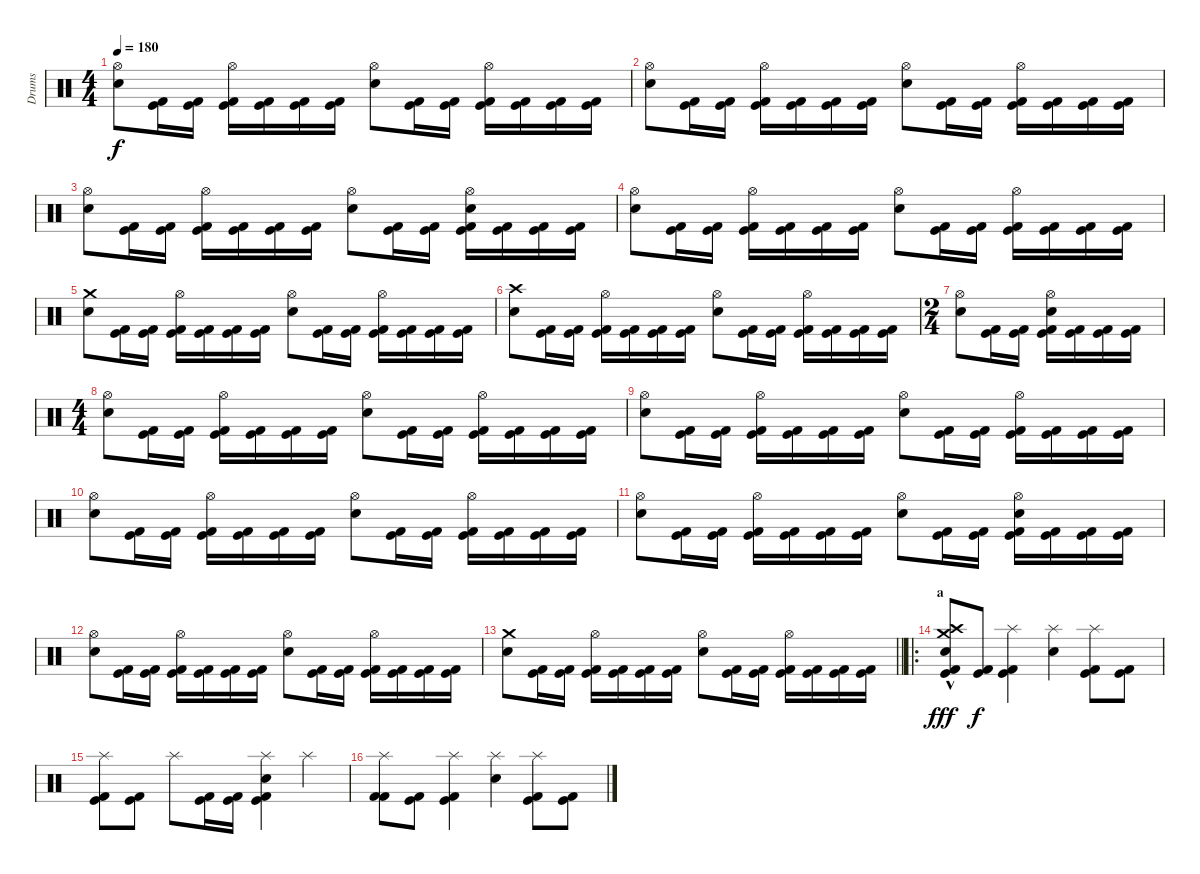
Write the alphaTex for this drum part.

\track ("Drums" "Drums") {instrument percussion}
\staff {score}
\articulation defaults
\ts (4 4)
\tempo 180
\clef neutral
\ks c
("Hi-Hat (open)" "Electric Snare (hit)").8{dy f} ("Kick (hit) 2" "Kick (hit)").16 ("Kick (hit) 2" "Kick (hit)").16 ("Kick (hit) 2" "Hi-Hat (open)" "Kick (hit)").16 ("Kick (hit) 2" "Kick (hit)").16 ("Kick (hit) 2" "Kick (hit)").16 ("Kick (hit) 2" "Kick (hit)").16 ("Hi-Hat (open)" "Electric Snare (hit)").8 ("Kick (hit) 2" "Kick (hit)").16 ("Kick (hit) 2" "Kick (hit)").16 ("Kick (hit) 2" "Hi-Hat (open)" "Kick (hit)").16 ("Kick (hit) 2" "Kick (hit)").16 ("Kick (hit) 2" "Kick (hit)").16 ("Kick (hit) 2" "Kick (hit)").16 |
("Hi-Hat (open)" "Electric Snare (hit)").8 ("Kick (hit) 2" "Kick (hit)").16 ("Kick (hit) 2" "Kick (hit)").16 ("Kick (hit) 2" "Hi-Hat (open)" "Kick (hit)").16 ("Kick (hit) 2" "Kick (hit)").16 ("Kick (hit) 2" "Kick (hit)").16 ("Kick (hit) 2" "Kick (hit)").16 ("Hi-Hat (open)" "Electric Snare (hit)").8 ("Kick (hit) 2" "Kick (hit)").16 ("Kick (hit) 2" "Kick (hit)").16 ("Kick (hit) 2" "Hi-Hat (open)" "Kick (hit)").16 ("Kick (hit) 2" "Kick (hit)").16 ("Kick (hit) 2" "Kick (hit)").16 ("Kick (hit) 2" "Kick (hit)").16 |
("Hi-Hat (open)" "Electric Snare (hit)").8 ("Kick (hit) 2" "Kick (hit)").16 ("Kick (hit) 2" "Kick (hit)").16 ("Kick (hit) 2" "Hi-Hat (open)" "Kick (hit)").16 ("Kick (hit) 2" "Kick (hit)").16 ("Kick (hit) 2" "Kick (hit)").16 ("Kick (hit) 2" "Kick (hit)").16 ("Hi-Hat (open)" "Electric Snare (hit)").8 ("Kick (hit) 2" "Kick (hit)").16 ("Kick (hit) 2" "Kick (hit)").16 ("Kick (hit) 2" "Hi-Hat (open)" "Kick (hit)" "Electric Snare (hit)").16 ("Kick (hit) 2" "Kick (hit)").16 ("Kick (hit) 2" "Kick (hit)").16 ("Kick (hit) 2" "Kick (hit)").16 |
("Hi-Hat (open)" "Electric Snare (hit)").8 ("Kick (hit) 2" "Kick (hit)").16 ("Kick (hit) 2" "Kick (hit)").16 ("Kick (hit) 2" "Hi-Hat (open)" "Kick (hit)").16 ("Kick (hit) 2" "Kick (hit)").16 ("Kick (hit) 2" "Kick (hit)").16 ("Kick (hit) 2" "Kick (hit)").16 ("Hi-Hat (open)" "Electric Snare (hit)").8 ("Kick (hit) 2" "Kick (hit)").16 ("Kick (hit) 2" "Kick (hit)").16 ("Kick (hit) 2" "Hi-Hat (open)" "Kick (hit)").16 ("Kick (hit) 2" "Kick (hit)").16 ("Kick (hit) 2" "Kick (hit)").16 ("Kick (hit) 2" "Kick (hit)").16 |
("Crash medium (hit)" "Electric Snare (hit)").8 ("Kick (hit) 2" "Kick (hit)").16 ("Kick (hit) 2" "Kick (hit)").16 ("Kick (hit) 2" "Hi-Hat (open)" "Kick (hit)").16 ("Kick (hit) 2" "Kick (hit)").16 ("Kick (hit) 2" "Kick (hit)").16 ("Kick (hit) 2" "Kick (hit)").16 ("Hi-Hat (open)" "Electric Snare (hit)").8 ("Kick (hit) 2" "Kick (hit)").16 ("Kick (hit) 2" "Kick (hit)").16 ("Kick (hit) 2" "Hi-Hat (open)" "Kick (hit)").16 ("Kick (hit) 2" "Kick (hit)").16 ("Kick (hit) 2" "Kick (hit)").16 ("Kick (hit) 2" "Kick (hit)").16 |
("Crash high (hit)" "Electric Snare (hit)").8 ("Kick (hit) 2" "Kick (hit)").16 ("Kick (hit) 2" "Kick (hit)").16 ("Kick (hit) 2" "Hi-Hat (open)" "Kick (hit)").16 ("Kick (hit) 2" "Kick (hit)").16 ("Kick (hit) 2" "Kick (hit)").16 ("Kick (hit) 2" "Kick (hit)").16 ("Hi-Hat (open)" "Electric Snare (hit)").8 ("Kick (hit) 2" "Kick (hit)").16 ("Kick (hit) 2" "Kick (hit)").16 ("Kick (hit) 2" "Hi-Hat (open)" "Kick (hit)").16 ("Kick (hit) 2" "Kick (hit)").16 ("Kick (hit) 2" "Kick (hit)").16 ("Kick (hit) 2" "Kick (hit)").16 |
\ts (2 4)
("Hi-Hat (open)" "Electric Snare (hit)").8 ("Kick (hit) 2" "Kick (hit)").16 ("Kick (hit) 2" "Kick (hit)").16 ("Kick (hit) 2" "Electric Snare (hit)" "Hi-Hat (open)" "Kick (hit)").16 ("Kick (hit) 2" "Kick (hit)").16 ("Kick (hit) 2" "Kick (hit)").16 ("Kick (hit) 2" "Kick (hit)").16 |
\ts (4 4)
("Hi-Hat (open)" "Electric Snare (hit)").8 ("Kick (hit) 2" "Kick (hit)").16 ("Kick (hit) 2" "Kick (hit)").16 ("Kick (hit) 2" "Hi-Hat (open)" "Kick (hit)").16 ("Kick (hit) 2" "Kick (hit)").16 ("Kick (hit) 2" "Kick (hit)").16 ("Kick (hit) 2" "Kick (hit)").16 ("Hi-Hat (open)" "Electric Snare (hit)").8 ("Kick (hit) 2" "Kick (hit)").16 ("Kick (hit) 2" "Kick (hit)").16 ("Kick (hit) 2" "Hi-Hat (open)" "Kick (hit)").16 ("Kick (hit) 2" "Kick (hit)").16 ("Kick (hit) 2" "Kick (hit)").16 ("Kick (hit) 2" "Kick (hit)").16 |
("Hi-Hat (open)" "Electric Snare (hit)").8 ("Kick (hit) 2" "Kick (hit)").16 ("Kick (hit) 2" "Kick (hit)").16 ("Kick (hit) 2" "Hi-Hat (open)" "Kick (hit)").16 ("Kick (hit) 2" "Kick (hit)").16 ("Kick (hit) 2" "Kick (hit)").16 ("Kick (hit) 2" "Kick (hit)").16 ("Hi-Hat (open)" "Electric Snare (hit)").8 ("Kick (hit) 2" "Kick (hit)").16 ("Kick (hit) 2" "Kick (hit)").16 ("Kick (hit) 2" "Hi-Hat (open)" "Kick (hit)").16 ("Kick (hit) 2" "Kick (hit)").16 ("Kick (hit) 2" "Kick (hit)").16 ("Kick (hit) 2" "Kick (hit)").16 |
("Hi-Hat (open)" "Electric Snare (hit)").8 ("Kick (hit) 2" "Kick (hit)").16 ("Kick (hit) 2" "Kick (hit)").16 ("Kick (hit) 2" "Hi-Hat (open)" "Kick (hit)").16 ("Kick (hit) 2" "Kick (hit)").16 ("Kick (hit) 2" "Kick (hit)").16 ("Kick (hit) 2" "Kick (hit)").16 ("Hi-Hat (open)" "Electric Snare (hit)").8 ("Kick (hit) 2" "Kick (hit)").16 ("Kick (hit) 2" "Kick (hit)").16 ("Kick (hit) 2" "Hi-Hat (open)" "Kick (hit)").16 ("Kick (hit) 2" "Kick (hit)").16 ("Kick (hit) 2" "Kick (hit)").16 ("Kick (hit) 2" "Kick (hit)").16 |
("Hi-Hat (open)" "Electric Snare (hit)").8 ("Kick (hit) 2" "Kick (hit)").16 ("Kick (hit) 2" "Kick (hit)").16 ("Kick (hit) 2" "Hi-Hat (open)" "Kick (hit)").16 ("Kick (hit) 2" "Kick (hit)").16 ("Kick (hit) 2" "Kick (hit)").16 ("Kick (hit) 2" "Kick (hit)").16 ("Hi-Hat (open)" "Electric Snare (hit)").8 ("Kick (hit) 2" "Kick (hit)").16 ("Kick (hit) 2" "Kick (hit)").16 ("Kick (hit) 2" "Hi-Hat (open)" "Kick (hit)" "Electric Snare (hit)").16 ("Kick (hit) 2" "Kick (hit)").16 ("Kick (hit) 2" "Kick (hit)").16 ("Kick (hit) 2" "Kick (hit)").16 |
("Hi-Hat (open)" "Electric Snare (hit)").8 ("Kick (hit) 2" "Kick (hit)").16 ("Kick (hit) 2" "Kick (hit)").16 ("Kick (hit) 2" "Hi-Hat (open)" "Kick (hit)").16 ("Kick (hit) 2" "Kick (hit)").16 ("Kick (hit) 2" "Kick (hit)").16 ("Kick (hit) 2" "Kick (hit)").16 ("Hi-Hat (open)" "Electric Snare (hit)").8 ("Kick (hit) 2" "Kick (hit)").16 ("Kick (hit) 2" "Kick (hit)").16 ("Kick (hit) 2" "Hi-Hat (open)" "Kick (hit)").16 ("Kick (hit) 2" "Kick (hit)").16 ("Kick (hit) 2" "Kick (hit)").16 ("Kick (hit) 2" "Kick (hit)").16 |
\barLineRight lightlight
("Crash medium (hit)" "Electric Snare (hit)").8 ("Kick (hit) 2" "Kick (hit)").16 ("Kick (hit) 2" "Kick (hit)").16 ("Kick (hit) 2" "Hi-Hat (open)" "Kick (hit)").16 ("Kick (hit) 2" "Kick (hit)").16 ("Kick (hit) 2" "Kick (hit)").16 ("Kick (hit) 2" "Kick (hit)").16 ("Hi-Hat (open)" "Electric Snare (hit)").8 ("Kick (hit) 2" "Kick (hit)").16 ("Kick (hit) 2" "Kick (hit)").16 ("Kick (hit) 2" "Hi-Hat (open)" "Kick (hit)").16 ("Kick (hit) 2" "Kick (hit)").16 ("Kick (hit) 2" "Kick (hit)").16 ("Kick (hit) 2" "Kick (hit)").16 |
\ro
\section ("" "a")
("Kick (hit) 2" "Snare (hit) 2" "Kick (hit)" "Crash high (hit)"{hac} "Crash medium (hit)"{hac}).8{dy fff} ("Kick (hit) 2" "Kick (hit)").8{dy f} ("Kick (hit) 2" "Kick (hit)" "Splash (hit)").4 ("Electric Snare (hit)" "Splash (hit)").4 ("Kick (hit) 2" "Kick (hit)" "Splash (hit)").8 ("Kick (hit) 2" "Kick (hit)").8 |
("Kick (hit) 2" "Kick (hit)" "Splash (hit)").8 ("Kick (hit) 2" "Kick (hit)").8 "Splash (hit)".8 ("Kick (hit) 2" "Kick (hit)").16 ("Kick (hit) 2" "Kick (hit)").16 ("Kick (hit) 2" "Electric Snare (hit)" "Kick (hit)" "Splash (hit)").4 "Splash (hit)".4 |
("Kick (hit) 2" "Kick (hit) 2" "Splash (hit)").8 ("Kick (hit) 2" "Kick (hit)").8 ("Kick (hit) 2" "Kick (hit)" "Splash (hit)").4 ("Electric Snare (hit)" "Splash (hit)").4 ("Kick (hit) 2" "Kick (hit)" "Splash (hit)").8 ("Kick (hit) 2" "Kick (hit)").8
